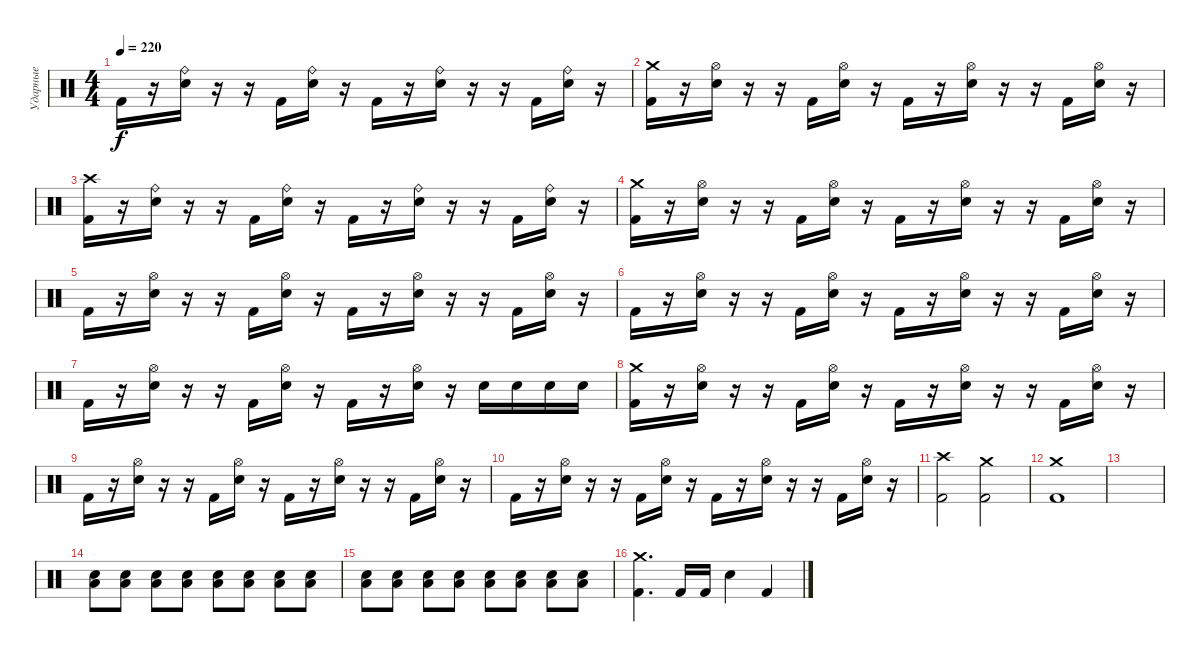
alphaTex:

\track ("Ударные" "Ударные") {instrument percussion}
\staff {score}
\articulation defaults
\ts (4 4)
\tempo 220
\clef neutral
\ks c "Kick (hit) 2".16{dy f}
r.16 ("Ride (bell)" "Snare (hit) 2").16 r.16 r.16 "Kick (hit) 2".16 ("Ride (bell)" "Snare (hit) 2").16 r.16 "Kick (hit) 2".16 r.16 ("Ride (bell)" "Snare (hit) 2").16 r.16 r.16 "Kick (hit) 2".16 ("Ride (bell)" "Snare (hit) 2").16 r.16 |
("Crash medium (hit)" "Kick (hit) 2").16 r.16 ("Hi-Hat (open)" "Snare (hit) 2").16 r.16 r.16 "Kick (hit) 2".16 ("Hi-Hat (open)" "Snare (hit) 2").16 r.16 "Kick (hit) 2".16 r.16 ("Hi-Hat (open)" "Snare (hit) 2").16 r.16 r.16 "Kick (hit) 2".16 ("Hi-Hat (open)" "Snare (hit) 2").16 r.16 |
("Crash high (hit)" "Kick (hit) 2").16 r.16 ("Ride (bell)" "Snare (hit) 2").16 r.16 r.16 "Kick (hit) 2".16 ("Ride (bell)" "Snare (hit) 2").16 r.16 "Kick (hit) 2".16 r.16 ("Ride (bell)" "Snare (hit) 2").16 r.16 r.16 "Kick (hit) 2".16 ("Ride (bell)" "Snare (hit) 2").16 r.16 |
("Crash medium (hit)" "Kick (hit) 2").16 r.16 ("Hi-Hat (open)" "Snare (hit) 2").16 r.16 r.16 "Kick (hit) 2".16 ("Hi-Hat (open)" "Snare (hit) 2").16 r.16 "Kick (hit) 2".16 r.16 ("Hi-Hat (open)" "Snare (hit) 2").16 r.16 r.16 "Kick (hit) 2".16 ("Hi-Hat (open)" "Snare (hit) 2").16 r.16 |
"Kick (hit) 2".16 r.16 ("Hi-Hat (open)" "Snare (hit) 2").16 r.16 r.16 "Kick (hit) 2".16 ("Hi-Hat (open)" "Snare (hit) 2").16 r.16 "Kick (hit) 2".16 r.16 ("Hi-Hat (open)" "Snare (hit) 2").16 r.16 r.16 "Kick (hit) 2".16 ("Hi-Hat (open)" "Snare (hit) 2").16 r.16 |
"Kick (hit) 2".16 r.16 ("Hi-Hat (open)" "Snare (hit) 2").16 r.16 r.16 "Kick (hit) 2".16 ("Hi-Hat (open)" "Snare (hit) 2").16 r.16 "Kick (hit) 2".16 r.16 ("Hi-Hat (open)" "Snare (hit) 2").16 r.16 r.16 "Kick (hit) 2".16 ("Hi-Hat (open)" "Snare (hit) 2").16 r.16 |
"Kick (hit) 2".16 r.16 ("Hi-Hat (open)" "Snare (hit) 2").16 r.16 r.16 "Kick (hit) 2".16 ("Hi-Hat (open)" "Snare (hit) 2").16 r.16 "Kick (hit) 2".16 r.16 ("Hi-Hat (open)" "Snare (hit) 2").16 r.16 "Snare (hit) 2".16 "Snare (hit) 2".16 "Snare (hit) 2".16 "Snare (hit) 2".16 |
("Crash medium (hit)" "Kick (hit) 2").16 r.16 ("Hi-Hat (open)" "Snare (hit) 2").16 r.16 r.16 "Kick (hit) 2".16 ("Hi-Hat (open)" "Snare (hit) 2").16 r.16 "Kick (hit) 2".16 r.16 ("Hi-Hat (open)" "Snare (hit) 2").16 r.16 r.16 "Kick (hit) 2".16 ("Hi-Hat (open)" "Snare (hit) 2").16 r.16 |
"Kick (hit) 2".16 r.16 ("Hi-Hat (open)" "Snare (hit) 2").16 r.16 r.16 "Kick (hit) 2".16 ("Hi-Hat (open)" "Snare (hit) 2").16 r.16 "Kick (hit) 2".16 r.16 ("Hi-Hat (open)" "Snare (hit) 2").16 r.16 r.16 "Kick (hit) 2".16 ("Hi-Hat (open)" "Snare (hit) 2").16 r.16 |
"Kick (hit) 2".16 r.16 ("Hi-Hat (open)" "Snare (hit) 2").16 r.16 r.16 "Kick (hit) 2".16 ("Hi-Hat (open)" "Snare (hit) 2").16 r.16 "Kick (hit) 2".16 r.16 ("Hi-Hat (open)" "Snare (hit) 2").16 r.16 r.16 "Kick (hit) 2".16 ("Hi-Hat (open)" "Snare (hit) 2").16 r.16 |
("Crash high (hit)" "Kick (hit) 2").2 ("Crash medium (hit)" "Kick (hit) 2").2 |
("Crash medium (hit)" "Kick (hit) 2").1 |
|
("Low Floor Tom (hit)" "Snare (hit) 2").8 ("Low Floor Tom (hit)" "Snare (hit) 2").8 ("Low Floor Tom (hit)" "Snare (hit) 2").8 ("Low Floor Tom (hit)" "Snare (hit) 2").8 ("Low Floor Tom (hit)" "Snare (hit) 2").8 ("Low Floor Tom (hit)" "Snare (hit) 2").8 ("Low Floor Tom (hit)" "Snare (hit) 2").8 ("Low Floor Tom (hit)" "Snare (hit) 2").8 |
("Low Floor Tom (hit)" "Snare (hit) 2").8 ("Low Floor Tom (hit)" "Snare (hit) 2").8 ("Low Floor Tom (hit)" "Snare (hit) 2").8 ("Low Floor Tom (hit)" "Snare (hit) 2").8 ("Low Floor Tom (hit)" "Snare (hit) 2").8 ("Low Floor Tom (hit)" "Snare (hit) 2").8 ("Low Floor Tom (hit)" "Snare (hit) 2").8 ("Low Floor Tom (hit)" "Snare (hit) 2").8 |
("Crash medium (hit)" "Kick (hit) 2").4{d} "Kick (hit) 2".16 "Kick (hit) 2".16 "Snare (hit) 2".4 "Kick (hit) 2".4
